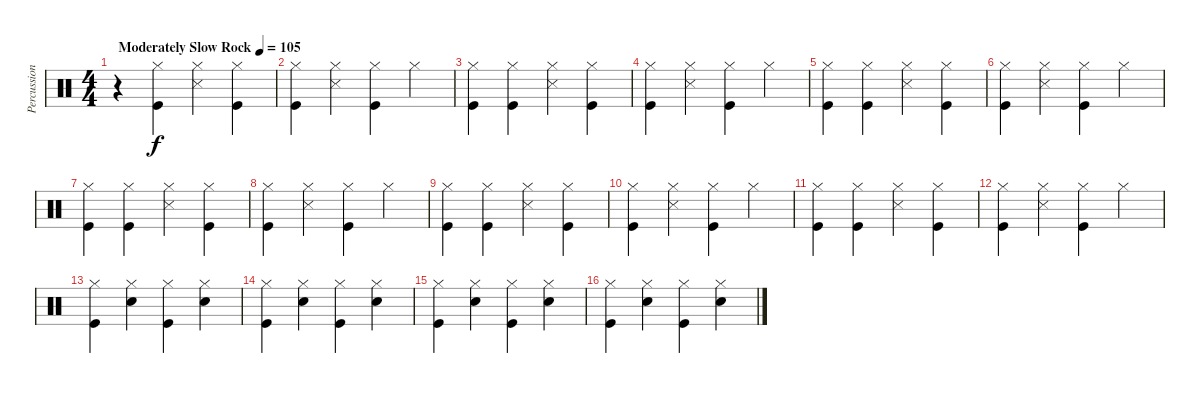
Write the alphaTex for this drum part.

\track ("Percussion" "Percussion") {instrument percussion}
\staff {score}
\articulation defaults
\ts (4 4)
\tempo (105 "Moderately Slow Rock")
\clef neutral
\ks c
r.4{dy f} ("Hi-Hat (closed)" "Kick (hit)").4 ("Hi-Hat (closed)" "Snare (side stick) 3").4 ("Hi-Hat (closed)" "Kick (hit)").4 |
("Hi-Hat (closed)" "Kick (hit)").4 ("Hi-Hat (closed)" "Snare (side stick) 3").4 ("Hi-Hat (closed)" "Kick (hit)").4 "Hi-Hat (closed)".4 |
("Hi-Hat (closed)" "Kick (hit)").4 ("Hi-Hat (closed)" "Kick (hit)").4 ("Hi-Hat (closed)" "Snare (side stick) 3").4 ("Hi-Hat (closed)" "Kick (hit)").4 |
("Hi-Hat (closed)" "Kick (hit)").4 ("Hi-Hat (closed)" "Snare (side stick) 3").4 ("Hi-Hat (closed)" "Kick (hit)").4 "Hi-Hat (closed)".4 |
("Hi-Hat (closed)" "Kick (hit)").4 ("Hi-Hat (closed)" "Kick (hit)").4 ("Hi-Hat (closed)" "Snare (side stick) 3").4 ("Hi-Hat (closed)" "Kick (hit)").4 |
("Hi-Hat (closed)" "Kick (hit)").4 ("Hi-Hat (closed)" "Snare (side stick) 3").4 ("Hi-Hat (closed)" "Kick (hit)").4 "Hi-Hat (closed)".4 |
("Hi-Hat (closed)" "Kick (hit)").4 ("Hi-Hat (closed)" "Kick (hit)").4 ("Hi-Hat (closed)" "Snare (side stick) 3").4 ("Hi-Hat (closed)" "Kick (hit)").4 |
("Hi-Hat (closed)" "Kick (hit)").4 ("Hi-Hat (closed)" "Snare (side stick) 3").4 ("Hi-Hat (closed)" "Kick (hit)").4 "Hi-Hat (closed)".4 |
("Hi-Hat (closed)" "Kick (hit)").4 ("Hi-Hat (closed)" "Kick (hit)").4 ("Hi-Hat (closed)" "Snare (side stick) 3").4 ("Hi-Hat (closed)" "Kick (hit)").4 |
("Hi-Hat (closed)" "Kick (hit)").4 ("Hi-Hat (closed)" "Snare (side stick) 3").4 ("Hi-Hat (closed)" "Kick (hit)").4 "Hi-Hat (closed)".4 |
("Hi-Hat (closed)" "Kick (hit)").4 ("Hi-Hat (closed)" "Kick (hit)").4 ("Hi-Hat (closed)" "Snare (side stick) 3").4 ("Hi-Hat (closed)" "Kick (hit)").4 |
("Hi-Hat (closed)" "Kick (hit)").4 ("Hi-Hat (closed)" "Snare (side stick) 3").4 ("Hi-Hat (closed)" "Kick (hit)").4 "Hi-Hat (closed)".4 |
("Hi-Hat (closed)" "Kick (hit)").4 ("Hi-Hat (closed)" "Snare (hit) 2").4 ("Hi-Hat (closed)" "Kick (hit)").4 ("Hi-Hat (closed)" "Snare (hit) 2").4 |
("Hi-Hat (closed)" "Kick (hit)").4 ("Hi-Hat (closed)" "Snare (hit) 2").4 ("Hi-Hat (closed)" "Kick (hit)").4 ("Hi-Hat (closed)" "Snare (hit) 2").4 |
("Hi-Hat (closed)" "Kick (hit)").4 ("Hi-Hat (closed)" "Snare (hit) 2").4 ("Hi-Hat (closed)" "Kick (hit)").4 ("Hi-Hat (closed)" "Snare (hit) 2").4 |
("Hi-Hat (closed)" "Kick (hit)").4 ("Hi-Hat (closed)" "Snare (hit) 2").4 ("Hi-Hat (closed)" "Kick (hit)").4 ("Hi-Hat (closed)" "Snare (hit) 2").4
